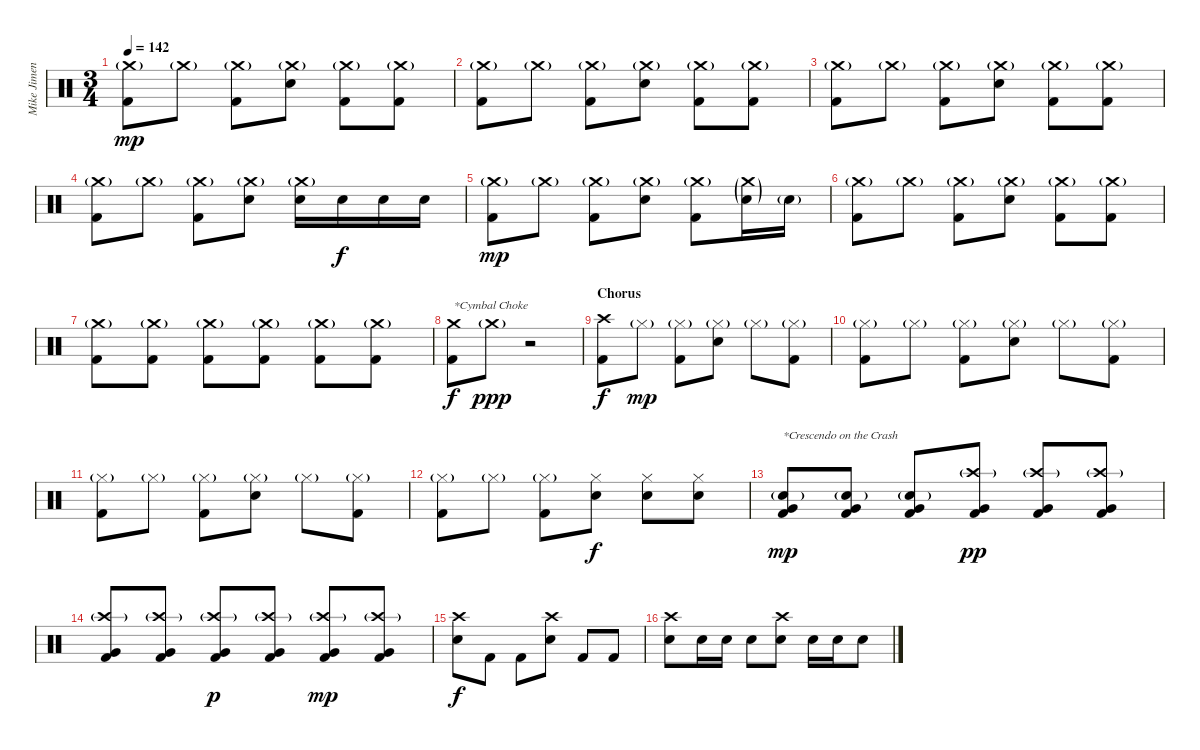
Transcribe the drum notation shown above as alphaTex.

\track ("Mike Jimenez" "Mike Jimen") {instrument percussion}
\staff {score}
\articulation defaults
\ts (3 4)
\tempo 142
\clef neutral
\ks c
("Crash medium (hit)"{g} "Kick (hit) 2").8{dy mp} "Crash medium (hit)"{g}.8 ("Crash medium (hit)"{g} "Kick (hit) 2").8 ("Crash medium (hit)"{g} "Electric Snare (hit)").8 ("Crash medium (hit)"{g} "Kick (hit) 2").8 ("Crash medium (hit)"{g} "Kick (hit) 2").8 |
("Crash medium (hit)"{g} "Kick (hit) 2").8 "Crash medium (hit)"{g}.8 ("Crash medium (hit)"{g} "Kick (hit) 2").8 ("Crash medium (hit)"{g} "Electric Snare (hit)").8 ("Crash medium (hit)"{g} "Kick (hit) 2").8 ("Crash medium (hit)"{g} "Kick (hit) 2").8 |
("Crash medium (hit)"{g} "Kick (hit) 2").8 "Crash medium (hit)"{g}.8 ("Crash medium (hit)"{g} "Kick (hit) 2").8 ("Crash medium (hit)"{g} "Electric Snare (hit)").8 ("Crash medium (hit)"{g} "Kick (hit) 2").8 ("Crash medium (hit)"{g} "Kick (hit) 2").8 |
("Crash medium (hit)"{g} "Kick (hit) 2").8 "Crash medium (hit)"{g}.8 ("Crash medium (hit)"{g} "Kick (hit) 2").8 ("Crash medium (hit)"{g} "Electric Snare (hit)").8 ("Crash medium (hit)"{g} "Electric Snare (hit)").16 "Electric Snare (hit)".16{dy f} "Electric Snare (hit)".16 "Electric Snare (hit)".16 |
("Crash medium (hit)"{g} "Kick (hit) 2").8{dy mp} "Crash medium (hit)"{g}.8 ("Crash medium (hit)"{g} "Kick (hit) 2").8 ("Crash medium (hit)"{g} "Electric Snare (hit)").8 ("Crash medium (hit)"{g} "Kick (hit) 2").8 ("Crash medium (hit)"{g} "Electric Snare (hit)"{g}).16 "Electric Snare (hit)"{g}.16 |
("Crash medium (hit)"{g} "Kick (hit) 2").8 "Crash medium (hit)"{g}.8 ("Crash medium (hit)"{g} "Kick (hit) 2").8 ("Crash medium (hit)"{g} "Electric Snare (hit)").8 ("Crash medium (hit)"{g} "Kick (hit) 2").8 ("Crash medium (hit)"{g} "Kick (hit) 2").8 |
("Crash medium (hit)"{g} "Kick (hit) 2").8 ("Crash medium (hit)"{g} "Kick (hit) 2").8 ("Crash medium (hit)"{g} "Kick (hit) 2").8 ("Crash medium (hit)"{g} "Kick (hit) 2").8 ("Crash medium (hit)"{g} "Kick (hit) 2").8 ("Crash medium (hit)"{g} "Kick (hit) 2").8 |
("Crash medium (hit)" "Kick (hit) 2").8{txt "*Cymbal Choke" dy f} "Crash medium (hit)"{g}.8{dy ppp} r.2 |
\section ("" "Chorus")
("Crash high (hit)" "Kick (hit) 2").8{dy f} "Hi-Hat (closed)"{g}.8{dy mp} ("Hi-Hat (closed)"{g} "Kick (hit) 2").8 ("Hi-Hat (closed)"{g} "Electric Snare (hit)").8 "Hi-Hat (closed)"{g}.8 ("Hi-Hat (closed)"{g} "Kick (hit) 2").8 |
("Hi-Hat (closed)"{g} "Kick (hit) 2").8 "Hi-Hat (closed)"{g}.8 ("Hi-Hat (closed)"{g} "Kick (hit) 2").8 ("Hi-Hat (closed)"{g} "Electric Snare (hit)").8 "Hi-Hat (closed)"{g}.8 ("Hi-Hat (closed)"{g} "Kick (hit) 2").8 |
("Hi-Hat (closed)"{g} "Kick (hit) 2").8 "Hi-Hat (closed)"{g}.8 ("Hi-Hat (closed)"{g} "Kick (hit) 2").8 ("Hi-Hat (closed)"{g} "Electric Snare (hit)").8 "Hi-Hat (closed)"{g}.8 ("Hi-Hat (closed)"{g} "Kick (hit) 2").8 |
("Hi-Hat (closed)"{g} "Kick (hit) 2").8 "Hi-Hat (closed)"{g}.8 ("Hi-Hat (closed)"{g} "Kick (hit) 2").8 ("Hi-Hat (closed)" "Electric Snare (hit)").8{dy f} ("Hi-Hat (closed)" "Electric Snare (hit)").8 ("Hi-Hat (closed)" "Electric Snare (hit)").8 |
("Electric Snare (hit)"{g} "Very Low Tom (hit)" "Kick (hit) 2").8{txt "*Crescendo on the Crash" dy mp} ("Electric Snare (hit)"{g} "Very Low Tom (hit)" "Kick (hit) 2").8 ("Electric Snare (hit)"{g} "Very Low Tom (hit)" "Kick (hit) 2").8 ("Crash high (hit)"{g} "Very Low Tom (hit)" "Kick (hit) 2").8{dy pp} ("Crash high (hit)"{g} "Very Low Tom (hit)" "Kick (hit) 2").8 ("Crash high (hit)"{g} "Very Low Tom (hit)" "Kick (hit) 2").8 |
("Crash high (hit)"{g} "Very Low Tom (hit)" "Kick (hit) 2").8 ("Crash high (hit)"{g} "Very Low Tom (hit)" "Kick (hit) 2").8 ("Crash high (hit)"{g} "Very Low Tom (hit)" "Kick (hit) 2").8{dy p} ("Crash high (hit)"{g} "Very Low Tom (hit)" "Kick (hit) 2").8 ("Crash high (hit)"{g} "Very Low Tom (hit)" "Kick (hit) 2").8{dy mp} ("Crash high (hit)"{g} "Very Low Tom (hit)" "Kick (hit) 2").8 |
("Crash high (hit)" "Electric Snare (hit)").8{dy f} "Kick (hit) 2".8 "Kick (hit) 2".8 ("Crash high (hit)" "Electric Snare (hit)").8 "Kick (hit) 2".8 "Kick (hit) 2".8 |
("Crash high (hit)" "Electric Snare (hit)").8 "Electric Snare (hit)".16 "Electric Snare (hit)".16 "Electric Snare (hit)".8 ("Crash high (hit)" "Electric Snare (hit)").8 "Electric Snare (hit)".16 "Electric Snare (hit)".16 "Electric Snare (hit)".8
